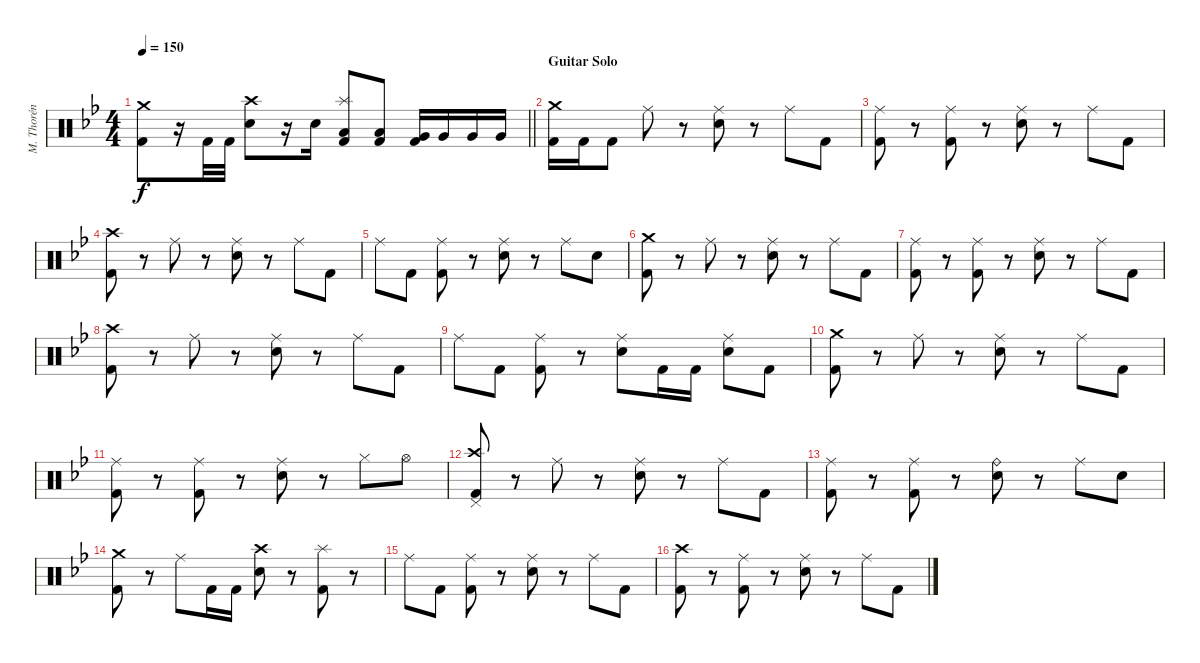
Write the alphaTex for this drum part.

\track ("M. Thorén (Drums)" "M. Thorén ") {instrument percussion}
\staff {score}
\articulation defaults
\ts (4 4)
\tempo 150
\clef neutral
\barLineRight lightlight
\ks gminor
("Crash medium (hit)" "Kick (hit) 2").8{dy f} r.16 "Kick (hit) 2".32 "Kick (hit) 2".32 ("Crash high (hit)" "Electric Snare (hit)").8 r.16 "Electric Snare (hit)".16 ("Splash (hit)" "Low Tom (hit)" "Kick (hit) 2").8 ("Low Tom (hit)" "Kick (hit) 2").8 ("Very Low Tom (hit)" "Kick (hit) 2").16 "Very Low Tom (hit)".16 "Very Low Tom (hit)".16 "Very Low Tom (hit)".16 |
\section ("" "Guitar Solo")
("Crash medium (hit)" "Kick (hit) 2").16 "Kick (hit) 2".16 "Kick (hit) 2".8 "Ride (middle)".8 r.8 ("Ride (middle)" "Electric Snare (hit)").8 r.8 "Ride (middle)".8 "Kick (hit) 2".8 |
("Ride (middle)" "Kick (hit) 2").8 r.8 ("Ride (middle)" "Kick (hit) 2").8 r.8 ("Ride (middle)" "Electric Snare (hit)").8 r.8 "Ride (middle)".8 "Kick (hit) 2".8 |
("Crash high (hit)" "Kick (hit) 2").8 r.8 "Ride (middle)".8 r.8 ("Ride (middle)" "Electric Snare (hit)").8 r.8 "Ride (middle)".8 "Kick (hit) 2".8 |
"Ride (middle)".8 "Kick (hit) 2".8 ("Ride (middle)" "Kick (hit) 2").8 r.8 ("Ride (middle)" "Electric Snare (hit)").8 r.8 "Ride (middle)".8 "Electric Snare (hit)".8 |
("Crash medium (hit)" "Kick (hit) 2").8 r.8 "Ride (middle)".8 r.8 ("Ride (middle)" "Electric Snare (hit)").8 r.8 "Ride (middle)".8 "Kick (hit) 2".8 |
("Ride (middle)" "Kick (hit) 2").8 r.8 ("Ride (middle)" "Kick (hit) 2").8 r.8 ("Ride (middle)" "Electric Snare (hit)").8 r.8 "Ride (middle)".8 "Kick (hit) 2".8 |
("Crash high (hit)" "Kick (hit) 2").8 r.8 "Ride (middle)".8 r.8 ("Ride (middle)" "Electric Snare (hit)").8 r.8 "Ride (middle)".8 "Kick (hit) 2".8 |
"Ride (middle)".8 "Kick (hit) 2".8 ("Ride (middle)" "Kick (hit) 2").8 r.8 ("Ride (middle)" "Electric Snare (hit)").8 "Kick (hit) 2".16 "Kick (hit) 2".16 ("Ride (middle)" "Electric Snare (hit)").8 "Kick (hit) 2".8 |
("Crash medium (hit)" "Kick (hit) 2").8 r.8 "Ride (middle)".8 r.8 ("Ride (middle)" "Electric Snare (hit)").8 r.8 "Ride (middle)".8 "Kick (hit) 2".8 |
("Ride (middle)" "Kick (hit) 2").8 r.8 ("Ride (middle)" "Kick (hit) 2").8 r.8 ("Ride (middle)" "Electric Snare (hit)").8 r.8 "Hi-Hat (closed)".8 "Hi-Hat (open)".8 |
("Crash high (hit)" "Pedal Hi-Hat (hit)" "Kick (hit) 2").8 r.8 "Ride (middle)".8 r.8 ("Ride (middle)" "Electric Snare (hit)").8 r.8 "Ride (middle)".8 "Kick (hit) 2".8 |
("Ride (middle)" "Kick (hit) 2").8 r.8 ("Ride (middle)" "Kick (hit) 2").8 r.8 ("Ride (bell)" "Electric Snare (hit)").8 r.8 "Ride (middle)".8 "Electric Snare (hit)".8 |
("Crash medium (hit)" "Kick (hit) 2").8 r.8 "Ride (middle)".8 "Kick (hit) 2".16 "Kick (hit) 2".16 ("Crash high (hit)" "Electric Snare (hit)").8 r.8 ("Splash (hit)" "Kick (hit) 2").8 r.8 |
"Ride (middle)".8 "Kick (hit) 2".8 ("Ride (middle)" "Kick (hit) 2").8 r.8 ("Ride (middle)" "Electric Snare (hit)").8 r.8 "Ride (middle)".8 "Kick (hit) 2".8 |
("Crash high (hit)" "Kick (hit) 2").8 r.8 ("Ride (middle)" "Kick (hit) 2").8 r.8 ("Ride (middle)" "Electric Snare (hit)").8 r.8 "Ride (middle)".8 "Kick (hit) 2".8
